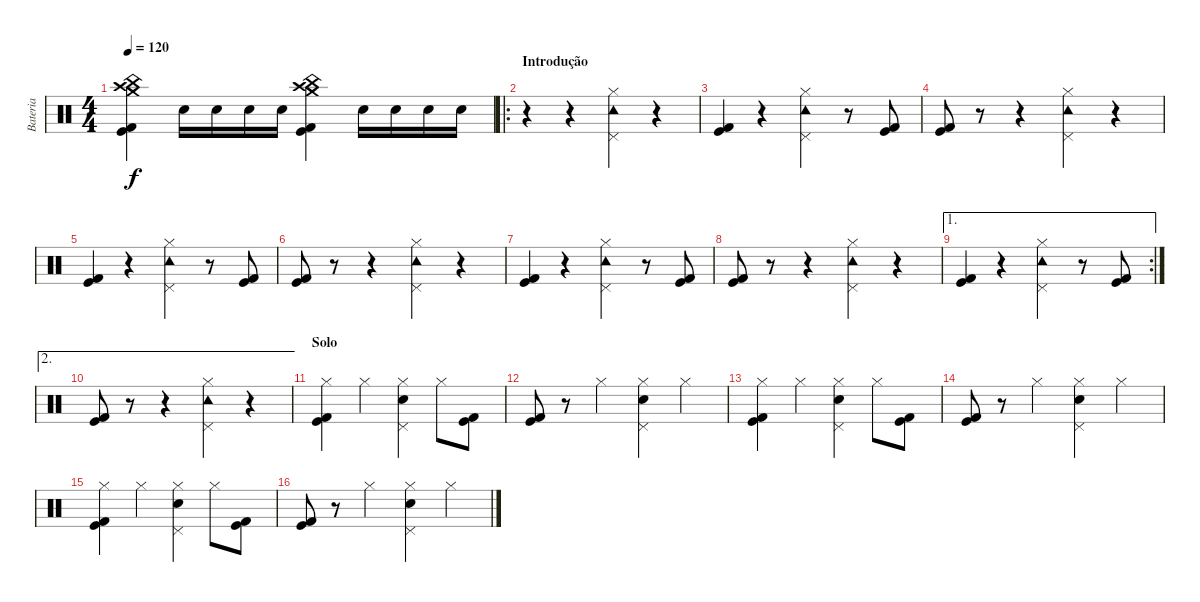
\track ("Bateria" "Bateria") {instrument percussion}
\staff {score}
\articulation defaults
\ts (4 4)
\tempo 120
\clef neutral
\ks c
("Crash high (hit)" "Crash medium (hit)" "China (hit)" "Kick (hit)" "Kick (hit) 2").4{dy f} "Electric Snare (hit)".16 "Electric Snare (hit)".16 "Electric Snare (hit)".16 "Electric Snare (hit)".16 ("Crash high (hit)" "Crash medium (hit)" "China (hit)" "Kick (hit) 2" "Kick (hit)").4 "Electric Snare (hit)".16 "Electric Snare (hit)".16 "Electric Snare (hit)".16 "Electric Snare (hit)".16 |
\ro
\section ("" "Introdução")
r.4 r.4 ("Tambourine (hit)" "Pedal Hi-Hat (hit)" "Hi-Hat (closed)").4 r.4 |
("Kick (hit) 2" "Kick (hit)").4 r.4 ("Tambourine (hit)" "Pedal Hi-Hat (hit)" "Hi-Hat (closed)").4 r.8 ("Kick (hit)" "Kick (hit) 2").8 |
("Kick (hit)" "Kick (hit) 2").8 r.8 r.4 ("Tambourine (hit)" "Pedal Hi-Hat (hit)" "Hi-Hat (closed)").4 r.4 |
("Kick (hit) 2" "Kick (hit)").4 r.4 ("Tambourine (hit)" "Pedal Hi-Hat (hit)" "Hi-Hat (closed)").4 r.8 ("Kick (hit)" "Kick (hit) 2").8 |
("Kick (hit)" "Kick (hit) 2").8 r.8 r.4 ("Tambourine (hit)" "Pedal Hi-Hat (hit)" "Hi-Hat (closed)").4 r.4 |
("Kick (hit) 2" "Kick (hit)").4 r.4 ("Tambourine (hit)" "Pedal Hi-Hat (hit)" "Hi-Hat (closed)").4 r.8 ("Kick (hit)" "Kick (hit) 2").8 |
("Kick (hit)" "Kick (hit) 2").8 r.8 r.4 ("Tambourine (hit)" "Pedal Hi-Hat (hit)" "Hi-Hat (closed)").4 r.4 |
\ae 1
\rc 2
("Kick (hit) 2" "Kick (hit)").4 r.4 ("Tambourine (hit)" "Pedal Hi-Hat (hit)" "Hi-Hat (closed)").4 r.8 ("Kick (hit)" "Kick (hit) 2").8 |
\ae 2
("Kick (hit)" "Kick (hit) 2").8 r.8 r.4 ("Tambourine (hit)" "Pedal Hi-Hat (hit)" "Hi-Hat (closed)").4 r.4 |
\section ("" "Solo")
("Hi-Hat (closed)" "Kick (hit) 2" "Kick (hit)").4 "Hi-Hat (closed)".4 ("Hi-Hat (closed)" "Pedal Hi-Hat (hit)" "Electric Snare (hit)").4 "Hi-Hat (closed)".8 ("Kick (hit)" "Kick (hit) 2").8 |
("Kick (hit)" "Kick (hit) 2").8 r.8 "Hi-Hat (closed)".4 ("Hi-Hat (closed)" "Pedal Hi-Hat (hit)" "Electric Snare (hit)").4 "Hi-Hat (closed)".4 |
("Hi-Hat (closed)" "Kick (hit) 2" "Kick (hit)").4 "Hi-Hat (closed)".4 ("Hi-Hat (closed)" "Pedal Hi-Hat (hit)" "Electric Snare (hit)").4 "Hi-Hat (closed)".8 ("Kick (hit)" "Kick (hit) 2").8 |
("Kick (hit)" "Kick (hit) 2").8 r.8 "Hi-Hat (closed)".4 ("Hi-Hat (closed)" "Pedal Hi-Hat (hit)" "Electric Snare (hit)").4 "Hi-Hat (closed)".4 |
("Hi-Hat (closed)" "Kick (hit) 2" "Kick (hit)").4 "Hi-Hat (closed)".4 ("Hi-Hat (closed)" "Pedal Hi-Hat (hit)" "Electric Snare (hit)").4 "Hi-Hat (closed)".8 ("Kick (hit)" "Kick (hit) 2").8 |
("Kick (hit)" "Kick (hit) 2").8 r.8 "Hi-Hat (closed)".4 ("Hi-Hat (closed)" "Pedal Hi-Hat (hit)" "Electric Snare (hit)").4 "Hi-Hat (closed)".4
